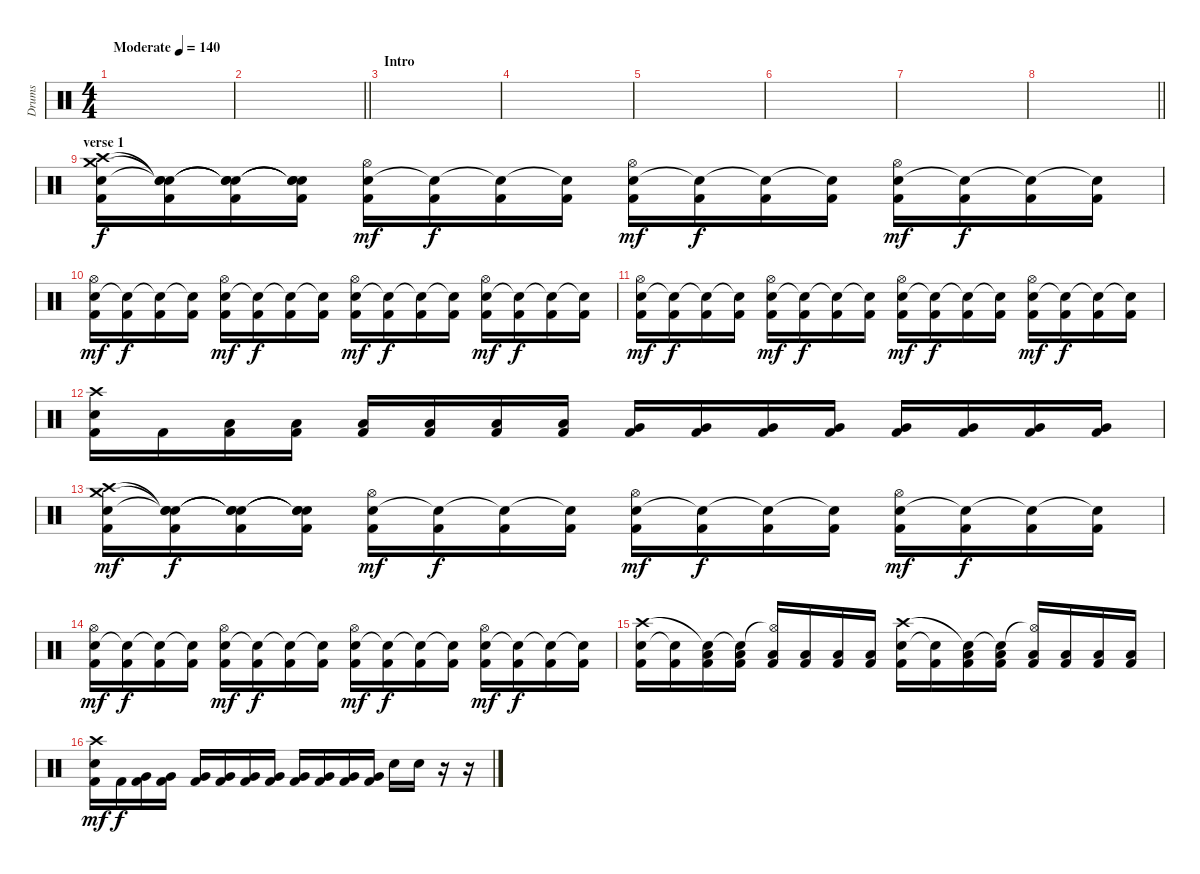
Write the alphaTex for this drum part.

\track ("Drums" "Drums") {instrument percussion}
\staff {score}
\articulation defaults
\ts (4 4)
\tempo (140 "Moderate")
\clef neutral
\ks c
|
\barLineRight lightlight
|
\section ("" "Intro")
|
|
|
|
|
\barLineRight lightlight
|
\section ("" "verse 1")
("Kick (hit) 2" "Snare (hit) 2" "Crash high (hit)" "Crash medium (hit)").16 ("Kick (hit) 2" "Snare (hit)"{t} "Snare (hit)"{t} "Snare (hit)"{t}).16{dy f} ("Kick (hit) 2" "Snare (hit)"{t} "Snare (hit)"{t} "Snare (hit)"{t}).16 ("Kick (hit) 2" "Snare (hit)"{t} "Snare (hit)"{t} "Snare (hit)"{t}).16 ("Kick (hit) 2" "Snare (hit) 2" "Hi-Hat (open)").16{dy mf} ("Kick (hit) 2" "Snare (hit)"{t}).16{dy f} ("Kick (hit) 2" "Snare (hit)"{t}).16 ("Kick (hit) 2" "Snare (hit)"{t}).16 ("Kick (hit) 2" "Snare (hit) 2" "Hi-Hat (open)").16{dy mf} ("Kick (hit) 2" "Snare (hit)"{t}).16{dy f} ("Kick (hit) 2" "Snare (hit)"{t}).16 ("Kick (hit) 2" "Snare (hit)"{t}).16 ("Kick (hit) 2" "Snare (hit) 2" "Hi-Hat (open)").16{dy mf} ("Kick (hit) 2" "Snare (hit)"{t}).16{dy f} ("Kick (hit) 2" "Snare (hit)"{t}).16 ("Kick (hit) 2" "Snare (hit)"{t}).16 |
("Kick (hit) 2" "Snare (hit) 2" "Hi-Hat (open)").16{dy mf} ("Kick (hit) 2" "Snare (hit)"{t}).16{dy f} ("Kick (hit) 2" "Snare (hit)"{t}).16 ("Kick (hit) 2" "Snare (hit)"{t}).16 ("Kick (hit) 2" "Snare (hit) 2" "Hi-Hat (open)").16{dy mf} ("Kick (hit) 2" "Snare (hit)"{t}).16{dy f} ("Kick (hit) 2" "Snare (hit)"{t}).16 ("Kick (hit) 2" "Snare (hit)"{t}).16 ("Kick (hit) 2" "Snare (hit) 2" "Hi-Hat (open)").16{dy mf} ("Kick (hit) 2" "Snare (hit)"{t}).16{dy f} ("Kick (hit) 2" "Snare (hit)"{t}).16 ("Kick (hit) 2" "Snare (hit)"{t}).16 ("Kick (hit) 2" "Snare (hit) 2" "Hi-Hat (open)").16{dy mf} ("Kick (hit) 2" "Snare (hit)"{t}).16{dy f} ("Kick (hit) 2" "Snare (hit)"{t}).16 ("Kick (hit) 2" "Snare (hit)"{t}).16 |
("Kick (hit) 2" "Snare (hit) 2" "Hi-Hat (open)").16{dy mf} ("Kick (hit) 2" "Snare (hit)"{t}).16{dy f} ("Kick (hit) 2" "Snare (hit)"{t}).16 ("Kick (hit) 2" "Snare (hit)"{t}).16 ("Kick (hit) 2" "Snare (hit) 2" "Hi-Hat (open)").16{dy mf} ("Kick (hit) 2" "Snare (hit)"{t}).16{dy f} ("Kick (hit) 2" "Snare (hit)"{t}).16 ("Kick (hit) 2" "Snare (hit)"{t}).16 ("Kick (hit) 2" "Snare (hit) 2" "Hi-Hat (open)").16{dy mf} ("Kick (hit) 2" "Snare (hit)"{t}).16{dy f} ("Kick (hit) 2" "Snare (hit)"{t}).16 ("Kick (hit) 2" "Snare (hit)"{t}).16 ("Kick (hit) 2" "Snare (hit) 2" "Hi-Hat (open)").16{dy mf} ("Kick (hit) 2" "Snare (hit)"{t}).16{dy f} ("Kick (hit) 2" "Snare (hit)"{t}).16 ("Kick (hit) 2" "Snare (hit)"{t}).16 |
("Kick (hit) 2" "Snare (hit) 2" "Crash high (hit)").16 "Kick (hit) 2".16 ("Kick (hit) 2" "Low Tom (hit)").16 ("Kick (hit) 2" "Low Tom (hit)").16 ("Kick (hit) 2" "Low Tom (hit)").16 ("Kick (hit) 2" "Low Tom (hit)").16 ("Kick (hit) 2" "Low Tom (hit)").16 ("Kick (hit) 2" "Low Tom (hit)").16 ("Kick (hit) 2" "Very Low Tom (hit)").16 ("Kick (hit) 2" "Very Low Tom (hit)").16 ("Kick (hit) 2" "Very Low Tom (hit)").16 ("Kick (hit) 2" "Very Low Tom (hit)").16 ("Kick (hit) 2" "Very Low Tom (hit)").16 ("Kick (hit) 2" "Very Low Tom (hit)").16 ("Kick (hit) 2" "Very Low Tom (hit)").16 ("Kick (hit) 2" "Very Low Tom (hit)").16 |
("Kick (hit) 2" "Snare (hit) 2" "Crash high (hit)" "Crash medium (hit)").16{dy mf} ("Kick (hit) 2" "Snare (hit)"{t} "Snare (hit)"{t} "Snare (hit)"{t}).16{dy f} ("Kick (hit) 2" "Snare (hit)"{t} "Snare (hit)"{t} "Snare (hit)"{t}).16 ("Kick (hit) 2" "Snare (hit)"{t} "Snare (hit)"{t} "Snare (hit)"{t}).16 ("Kick (hit) 2" "Snare (hit) 2" "Hi-Hat (open)").16{dy mf} ("Kick (hit) 2" "Snare (hit)"{t}).16{dy f} ("Kick (hit) 2" "Snare (hit)"{t}).16 ("Kick (hit) 2" "Snare (hit)"{t}).16 ("Kick (hit) 2" "Snare (hit) 2" "Hi-Hat (open)").16{dy mf} ("Kick (hit) 2" "Snare (hit)"{t}).16{dy f} ("Kick (hit) 2" "Snare (hit)"{t}).16 ("Kick (hit) 2" "Snare (hit)"{t}).16 ("Kick (hit) 2" "Snare (hit) 2" "Hi-Hat (open)").16{dy mf} ("Kick (hit) 2" "Snare (hit)"{t}).16{dy f} ("Kick (hit) 2" "Snare (hit)"{t}).16 ("Kick (hit) 2" "Snare (hit)"{t}).16 |
("Kick (hit) 2" "Snare (hit) 2" "Hi-Hat (open)").16{dy mf} ("Kick (hit) 2" "Snare (hit)"{t}).16{dy f} ("Kick (hit) 2" "Snare (hit)"{t}).16 ("Kick (hit) 2" "Snare (hit)"{t}).16 ("Kick (hit) 2" "Snare (hit) 2" "Hi-Hat (open)").16{dy mf} ("Kick (hit) 2" "Snare (hit)"{t}).16{dy f} ("Kick (hit) 2" "Snare (hit)"{t}).16 ("Kick (hit) 2" "Snare (hit)"{t}).16 ("Kick (hit) 2" "Snare (hit) 2" "Hi-Hat (open)").16{dy mf} ("Kick (hit) 2" "Snare (hit)"{t}).16{dy f} ("Kick (hit) 2" "Snare (hit)"{t}).16 ("Kick (hit) 2" "Snare (hit)"{t}).16 ("Kick (hit) 2" "Snare (hit) 2" "Hi-Hat (open)").16{dy mf} ("Kick (hit) 2" "Snare (hit)"{t}).16{dy f} ("Kick (hit) 2" "Snare (hit)"{t}).16 ("Kick (hit) 2" "Snare (hit)"{t}).16 |
("Kick (hit) 2" "Snare (hit) 2" "Crash high (hit)").16 ("Kick (hit) 2" "Snare (hit)"{t}).16 ("Kick (hit) 2" "Low Tom (hit)" "Snare (hit)"{t}).16 ("Kick (hit) 2" "Low Tom (hit)" "Snare (hit)"{t}).16 ("Kick (hit) 2" "Low Tom (hit)" "Hi-Hat (open)"{t}).16 ("Kick (hit) 2" "Low Tom (hit)").16 ("Kick (hit) 2" "Low Tom (hit)").16 ("Kick (hit) 2" "Low Tom (hit)").16 ("Kick (hit) 2" "Snare (hit) 2" "Crash high (hit)").16 ("Kick (hit) 2" "Snare (hit)"{t}).16 ("Kick (hit) 2" "Low Tom (hit)" "Snare (hit)"{t}).16 ("Kick (hit) 2" "Low Tom (hit)" "Snare (hit)"{t}).16 ("Kick (hit) 2" "Low Tom (hit)" "Hi-Hat (open)"{t}).16 ("Kick (hit) 2" "Low Tom (hit)").16 ("Kick (hit) 2" "Low Tom (hit)").16 ("Kick (hit) 2" "Low Tom (hit)").16 |
("Kick (hit) 2" "Snare (hit) 2" "Crash high (hit)").16{dy mf} "Kick (hit) 2".16{dy f} ("Kick (hit) 2" "Very Low Tom (hit)").16 ("Kick (hit) 2" "Very Low Tom (hit)").16 ("Kick (hit) 2" "Very Low Tom (hit)").16 ("Kick (hit) 2" "Very Low Tom (hit)").16 ("Kick (hit) 2" "Very Low Tom (hit)").16 ("Kick (hit) 2" "Very Low Tom (hit)").16 ("Kick (hit) 2" "Very Low Tom (hit)").16 ("Kick (hit) 2" "Very Low Tom (hit)").16 ("Kick (hit) 2" "Very Low Tom (hit)").16 ("Kick (hit) 2" "Very Low Tom (hit)").16 "Snare (hit) 2".16 "Snare (hit) 2".16 r.16 r.16
